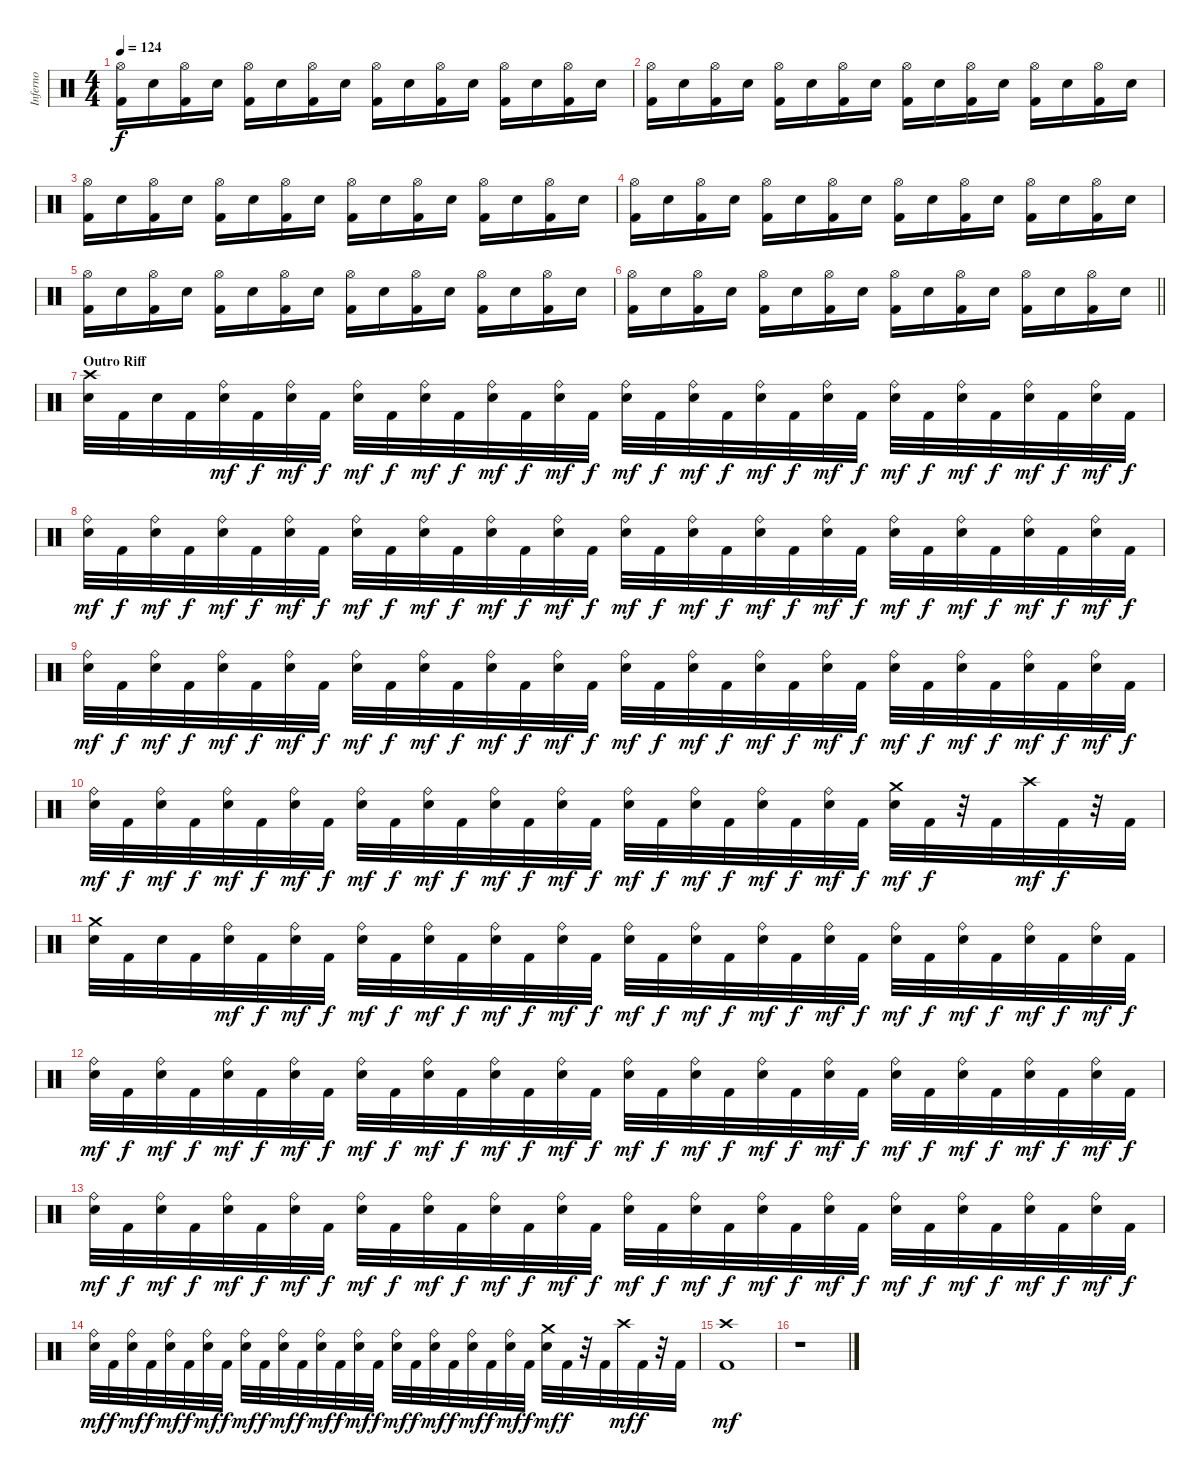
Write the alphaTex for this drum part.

\track ("Inferno" "Inferno") {instrument percussion}
\staff {score}
\articulation defaults
\ts (4 4)
\tempo 124
\clef neutral
\ks c
("Hi-Hat (open)" "Kick (hit) 2").16{dy f} "Snare (hit) 2".16 ("Hi-Hat (open)" "Kick (hit) 2").16 "Snare (hit) 2".16 ("Hi-Hat (open)" "Kick (hit) 2").16 "Snare (hit) 2".16 ("Hi-Hat (open)" "Kick (hit) 2").16 "Snare (hit) 2".16 ("Hi-Hat (open)" "Kick (hit) 2").16 "Snare (hit) 2".16 ("Hi-Hat (open)" "Kick (hit) 2").16 "Snare (hit) 2".16 ("Hi-Hat (open)" "Kick (hit) 2").16 "Snare (hit) 2".16 ("Hi-Hat (open)" "Kick (hit) 2").16 "Snare (hit) 2".16 |
("Hi-Hat (open)" "Kick (hit) 2").16 "Snare (hit) 2".16 ("Hi-Hat (open)" "Kick (hit) 2").16 "Snare (hit) 2".16 ("Hi-Hat (open)" "Kick (hit) 2").16 "Snare (hit) 2".16 ("Hi-Hat (open)" "Kick (hit) 2").16 "Snare (hit) 2".16 ("Hi-Hat (open)" "Kick (hit) 2").16 "Snare (hit) 2".16 ("Hi-Hat (open)" "Kick (hit) 2").16 "Snare (hit) 2".16 ("Hi-Hat (open)" "Kick (hit) 2").16 "Snare (hit) 2".16 ("Hi-Hat (open)" "Kick (hit) 2").16 "Snare (hit) 2".16 |
("Hi-Hat (open)" "Kick (hit) 2").16 "Snare (hit) 2".16 ("Hi-Hat (open)" "Kick (hit) 2").16 "Snare (hit) 2".16 ("Hi-Hat (open)" "Kick (hit) 2").16 "Snare (hit) 2".16 ("Hi-Hat (open)" "Kick (hit) 2").16 "Snare (hit) 2".16 ("Hi-Hat (open)" "Kick (hit) 2").16 "Snare (hit) 2".16 ("Hi-Hat (open)" "Kick (hit) 2").16 "Snare (hit) 2".16 ("Hi-Hat (open)" "Kick (hit) 2").16 "Snare (hit) 2".16 ("Hi-Hat (open)" "Kick (hit) 2").16 "Snare (hit) 2".16 |
("Hi-Hat (open)" "Kick (hit) 2").16 "Snare (hit) 2".16 ("Hi-Hat (open)" "Kick (hit) 2").16 "Snare (hit) 2".16 ("Hi-Hat (open)" "Kick (hit) 2").16 "Snare (hit) 2".16 ("Hi-Hat (open)" "Kick (hit) 2").16 "Snare (hit) 2".16 ("Hi-Hat (open)" "Kick (hit) 2").16 "Snare (hit) 2".16 ("Hi-Hat (open)" "Kick (hit) 2").16 "Snare (hit) 2".16 ("Hi-Hat (open)" "Kick (hit) 2").16 "Snare (hit) 2".16 ("Hi-Hat (open)" "Kick (hit) 2").16 "Snare (hit) 2".16 |
("Hi-Hat (open)" "Kick (hit) 2").16 "Snare (hit) 2".16 ("Hi-Hat (open)" "Kick (hit) 2").16 "Snare (hit) 2".16 ("Hi-Hat (open)" "Kick (hit) 2").16 "Snare (hit) 2".16 ("Hi-Hat (open)" "Kick (hit) 2").16 "Snare (hit) 2".16 ("Hi-Hat (open)" "Kick (hit) 2").16 "Snare (hit) 2".16 ("Hi-Hat (open)" "Kick (hit) 2").16 "Snare (hit) 2".16 ("Hi-Hat (open)" "Kick (hit) 2").16 "Snare (hit) 2".16 ("Hi-Hat (open)" "Kick (hit) 2").16 "Snare (hit) 2".16 |
\barLineRight lightlight
("Hi-Hat (open)" "Kick (hit) 2").16 "Snare (hit) 2".16 ("Hi-Hat (open)" "Kick (hit) 2").16 "Snare (hit) 2".16 ("Hi-Hat (open)" "Kick (hit) 2").16 "Snare (hit) 2".16 ("Hi-Hat (open)" "Kick (hit) 2").16 "Snare (hit) 2".16 ("Hi-Hat (open)" "Kick (hit) 2").16 "Snare (hit) 2".16 ("Hi-Hat (open)" "Kick (hit) 2").16 "Snare (hit) 2".16 ("Hi-Hat (open)" "Kick (hit) 2").16 "Snare (hit) 2".16 ("Hi-Hat (open)" "Kick (hit) 2").16 "Snare (hit) 2".16 |
\section ("" "Outro Riff")
("Crash high (hit)" "Snare (hit) 2").32 "Kick (hit) 2".32 "Snare (hit) 2".32 "Kick (hit) 2".32 ("Ride (bell)" "Snare (hit) 2").32{dy mf} "Kick (hit) 2".32{dy f} ("Ride (bell)" "Snare (hit) 2").32{dy mf} "Kick (hit) 2".32{dy f} ("Ride (bell)" "Snare (hit) 2").32{dy mf} "Kick (hit) 2".32{dy f} ("Ride (bell)" "Snare (hit) 2").32{dy mf} "Kick (hit) 2".32{dy f} ("Ride (bell)" "Snare (hit) 2").32{dy mf} "Kick (hit) 2".32{dy f} ("Ride (bell)" "Snare (hit) 2").32{dy mf} "Kick (hit) 2".32{dy f} ("Ride (bell)" "Snare (hit) 2").32{dy mf} "Kick (hit) 2".32{dy f} ("Ride (bell)" "Snare (hit) 2").32{dy mf} "Kick (hit) 2".32{dy f} ("Ride (bell)" "Snare (hit) 2").32{dy mf} "Kick (hit) 2".32{dy f} ("Ride (bell)" "Snare (hit) 2").32{dy mf} "Kick (hit) 2".32{dy f} ("Ride (bell)" "Snare (hit) 2").32{dy mf} "Kick (hit) 2".32{dy f} ("Ride (bell)" "Snare (hit) 2").32{dy mf} "Kick (hit) 2".32{dy f} ("Ride (bell)" "Snare (hit) 2").32{dy mf} "Kick (hit) 2".32{dy f} ("Ride (bell)" "Snare (hit) 2").32{dy mf} "Kick (hit) 2".32{dy f} |
("Ride (bell)" "Snare (hit) 2").32{dy mf} "Kick (hit) 2".32{dy f} ("Ride (bell)" "Snare (hit) 2").32{dy mf} "Kick (hit) 2".32{dy f} ("Ride (bell)" "Snare (hit) 2").32{dy mf} "Kick (hit) 2".32{dy f} ("Ride (bell)" "Snare (hit) 2").32{dy mf} "Kick (hit) 2".32{dy f} ("Ride (bell)" "Snare (hit) 2").32{dy mf} "Kick (hit) 2".32{dy f} ("Ride (bell)" "Snare (hit) 2").32{dy mf} "Kick (hit) 2".32{dy f} ("Ride (bell)" "Snare (hit) 2").32{dy mf} "Kick (hit) 2".32{dy f} ("Ride (bell)" "Snare (hit) 2").32{dy mf} "Kick (hit) 2".32{dy f} ("Ride (bell)" "Snare (hit) 2").32{dy mf} "Kick (hit) 2".32{dy f} ("Ride (bell)" "Snare (hit) 2").32{dy mf} "Kick (hit) 2".32{dy f} ("Ride (bell)" "Snare (hit) 2").32{dy mf} "Kick (hit) 2".32{dy f} ("Ride (bell)" "Snare (hit) 2").32{dy mf} "Kick (hit) 2".32{dy f} ("Ride (bell)" "Snare (hit) 2").32{dy mf} "Kick (hit) 2".32{dy f} ("Ride (bell)" "Snare (hit) 2").32{dy mf} "Kick (hit) 2".32{dy f} ("Ride (bell)" "Snare (hit) 2").32{dy mf} "Kick (hit) 2".32{dy f} ("Ride (bell)" "Snare (hit) 2").32{dy mf} "Kick (hit) 2".32{dy f} |
("Ride (bell)" "Snare (hit) 2").32{dy mf} "Kick (hit) 2".32{dy f} ("Ride (bell)" "Snare (hit) 2").32{dy mf} "Kick (hit) 2".32{dy f} ("Ride (bell)" "Snare (hit) 2").32{dy mf} "Kick (hit) 2".32{dy f} ("Ride (bell)" "Snare (hit) 2").32{dy mf} "Kick (hit) 2".32{dy f} ("Ride (bell)" "Snare (hit) 2").32{dy mf} "Kick (hit) 2".32{dy f} ("Ride (bell)" "Snare (hit) 2").32{dy mf} "Kick (hit) 2".32{dy f} ("Ride (bell)" "Snare (hit) 2").32{dy mf} "Kick (hit) 2".32{dy f} ("Ride (bell)" "Snare (hit) 2").32{dy mf} "Kick (hit) 2".32{dy f} ("Ride (bell)" "Snare (hit) 2").32{dy mf} "Kick (hit) 2".32{dy f} ("Ride (bell)" "Snare (hit) 2").32{dy mf} "Kick (hit) 2".32{dy f} ("Ride (bell)" "Snare (hit) 2").32{dy mf} "Kick (hit) 2".32{dy f} ("Ride (bell)" "Snare (hit) 2").32{dy mf} "Kick (hit) 2".32{dy f} ("Ride (bell)" "Snare (hit) 2").32{dy mf} "Kick (hit) 2".32{dy f} ("Ride (bell)" "Snare (hit) 2").32{dy mf} "Kick (hit) 2".32{dy f} ("Ride (bell)" "Snare (hit) 2").32{dy mf} "Kick (hit) 2".32{dy f} ("Ride (bell)" "Snare (hit) 2").32{dy mf} "Kick (hit) 2".32{dy f} |
("Ride (bell)" "Snare (hit) 2").32{dy mf} "Kick (hit) 2".32{dy f} ("Ride (bell)" "Snare (hit) 2").32{dy mf} "Kick (hit) 2".32{dy f} ("Ride (bell)" "Snare (hit) 2").32{dy mf} "Kick (hit) 2".32{dy f} ("Ride (bell)" "Snare (hit) 2").32{dy mf} "Kick (hit) 2".32{dy f} ("Ride (bell)" "Snare (hit) 2").32{dy mf} "Kick (hit) 2".32{dy f} ("Ride (bell)" "Snare (hit) 2").32{dy mf} "Kick (hit) 2".32{dy f} ("Ride (bell)" "Snare (hit) 2").32{dy mf} "Kick (hit) 2".32{dy f} ("Ride (bell)" "Snare (hit) 2").32{dy mf} "Kick (hit) 2".32{dy f} ("Ride (bell)" "Snare (hit) 2").32{dy mf} "Kick (hit) 2".32{dy f} ("Ride (bell)" "Snare (hit) 2").32{dy mf} "Kick (hit) 2".32{dy f} ("Ride (bell)" "Snare (hit) 2").32{dy mf} "Kick (hit) 2".32{dy f} ("Ride (bell)" "Snare (hit) 2").32{dy mf} "Kick (hit) 2".32{dy f} ("Crash medium (hit)" "Snare (hit) 2").32{dy mf} "Kick (hit) 2".32{dy f} r.32 "Kick (hit) 2".32 "Crash high (hit)".32{dy mf} "Kick (hit) 2".32{dy f} r.32 "Kick (hit) 2".32 |
("Crash medium (hit)" "Snare (hit) 2").32 "Kick (hit) 2".32 "Snare (hit) 2".32 "Kick (hit) 2".32 ("Ride (bell)" "Snare (hit) 2").32{dy mf} "Kick (hit) 2".32{dy f} ("Ride (bell)" "Snare (hit) 2").32{dy mf} "Kick (hit) 2".32{dy f} ("Ride (bell)" "Snare (hit) 2").32{dy mf} "Kick (hit) 2".32{dy f} ("Ride (bell)" "Snare (hit) 2").32{dy mf} "Kick (hit) 2".32{dy f} ("Ride (bell)" "Snare (hit) 2").32{dy mf} "Kick (hit) 2".32{dy f} ("Ride (bell)" "Snare (hit) 2").32{dy mf} "Kick (hit) 2".32{dy f} ("Ride (bell)" "Snare (hit) 2").32{dy mf} "Kick (hit) 2".32{dy f} ("Ride (bell)" "Snare (hit) 2").32{dy mf} "Kick (hit) 2".32{dy f} ("Ride (bell)" "Snare (hit) 2").32{dy mf} "Kick (hit) 2".32{dy f} ("Ride (bell)" "Snare (hit) 2").32{dy mf} "Kick (hit) 2".32{dy f} ("Ride (bell)" "Snare (hit) 2").32{dy mf} "Kick (hit) 2".32{dy f} ("Ride (bell)" "Snare (hit) 2").32{dy mf} "Kick (hit) 2".32{dy f} ("Ride (bell)" "Snare (hit) 2").32{dy mf} "Kick (hit) 2".32{dy f} ("Ride (bell)" "Snare (hit) 2").32{dy mf} "Kick (hit) 2".32{dy f} |
("Ride (bell)" "Snare (hit) 2").32{dy mf} "Kick (hit) 2".32{dy f} ("Ride (bell)" "Snare (hit) 2").32{dy mf} "Kick (hit) 2".32{dy f} ("Ride (bell)" "Snare (hit) 2").32{dy mf} "Kick (hit) 2".32{dy f} ("Ride (bell)" "Snare (hit) 2").32{dy mf} "Kick (hit) 2".32{dy f} ("Ride (bell)" "Snare (hit) 2").32{dy mf} "Kick (hit) 2".32{dy f} ("Ride (bell)" "Snare (hit) 2").32{dy mf} "Kick (hit) 2".32{dy f} ("Ride (bell)" "Snare (hit) 2").32{dy mf} "Kick (hit) 2".32{dy f} ("Ride (bell)" "Snare (hit) 2").32{dy mf} "Kick (hit) 2".32{dy f} ("Ride (bell)" "Snare (hit) 2").32{dy mf} "Kick (hit) 2".32{dy f} ("Ride (bell)" "Snare (hit) 2").32{dy mf} "Kick (hit) 2".32{dy f} ("Ride (bell)" "Snare (hit) 2").32{dy mf} "Kick (hit) 2".32{dy f} ("Ride (bell)" "Snare (hit) 2").32{dy mf} "Kick (hit) 2".32{dy f} ("Ride (bell)" "Snare (hit) 2").32{dy mf} "Kick (hit) 2".32{dy f} ("Ride (bell)" "Snare (hit) 2").32{dy mf} "Kick (hit) 2".32{dy f} ("Ride (bell)" "Snare (hit) 2").32{dy mf} "Kick (hit) 2".32{dy f} ("Ride (bell)" "Snare (hit) 2").32{dy mf} "Kick (hit) 2".32{dy f} |
("Ride (bell)" "Snare (hit) 2").32{dy mf} "Kick (hit) 2".32{dy f} ("Ride (bell)" "Snare (hit) 2").32{dy mf} "Kick (hit) 2".32{dy f} ("Ride (bell)" "Snare (hit) 2").32{dy mf} "Kick (hit) 2".32{dy f} ("Ride (bell)" "Snare (hit) 2").32{dy mf} "Kick (hit) 2".32{dy f} ("Ride (bell)" "Snare (hit) 2").32{dy mf} "Kick (hit) 2".32{dy f} ("Ride (bell)" "Snare (hit) 2").32{dy mf} "Kick (hit) 2".32{dy f} ("Ride (bell)" "Snare (hit) 2").32{dy mf} "Kick (hit) 2".32{dy f} ("Ride (bell)" "Snare (hit) 2").32{dy mf} "Kick (hit) 2".32{dy f} ("Ride (bell)" "Snare (hit) 2").32{dy mf} "Kick (hit) 2".32{dy f} ("Ride (bell)" "Snare (hit) 2").32{dy mf} "Kick (hit) 2".32{dy f} ("Ride (bell)" "Snare (hit) 2").32{dy mf} "Kick (hit) 2".32{dy f} ("Ride (bell)" "Snare (hit) 2").32{dy mf} "Kick (hit) 2".32{dy f} ("Ride (bell)" "Snare (hit) 2").32{dy mf} "Kick (hit) 2".32{dy f} ("Ride (bell)" "Snare (hit) 2").32{dy mf} "Kick (hit) 2".32{dy f} ("Ride (bell)" "Snare (hit) 2").32{dy mf} "Kick (hit) 2".32{dy f} ("Ride (bell)" "Snare (hit) 2").32{dy mf} "Kick (hit) 2".32{dy f} |
("Ride (bell)" "Snare (hit) 2").32{dy mf} "Kick (hit) 2".32{dy f} ("Ride (bell)" "Snare (hit) 2").32{dy mf} "Kick (hit) 2".32{dy f} ("Ride (bell)" "Snare (hit) 2").32{dy mf} "Kick (hit) 2".32{dy f} ("Ride (bell)" "Snare (hit) 2").32{dy mf} "Kick (hit) 2".32{dy f} ("Ride (bell)" "Snare (hit) 2").32{dy mf} "Kick (hit) 2".32{dy f} ("Ride (bell)" "Snare (hit) 2").32{dy mf} "Kick (hit) 2".32{dy f} ("Ride (bell)" "Snare (hit) 2").32{dy mf} "Kick (hit) 2".32{dy f} ("Ride (bell)" "Snare (hit) 2").32{dy mf} "Kick (hit) 2".32{dy f} ("Ride (bell)" "Snare (hit) 2").32{dy mf} "Kick (hit) 2".32{dy f} ("Ride (bell)" "Snare (hit) 2").32{dy mf} "Kick (hit) 2".32{dy f} ("Ride (bell)" "Snare (hit) 2").32{dy mf} "Kick (hit) 2".32{dy f} ("Ride (bell)" "Snare (hit) 2").32{dy mf} "Kick (hit) 2".32{dy f} ("Crash medium (hit)" "Snare (hit) 2").32{dy mf} "Kick (hit) 2".32{dy f} r.32 "Kick (hit) 2".32 "Crash high (hit)".32{dy mf} "Kick (hit) 2".32{dy f} r.32 "Kick (hit) 2".32 |
("Crash high (hit)" "Kick (hit) 2").1{dy mf} |
r.1
